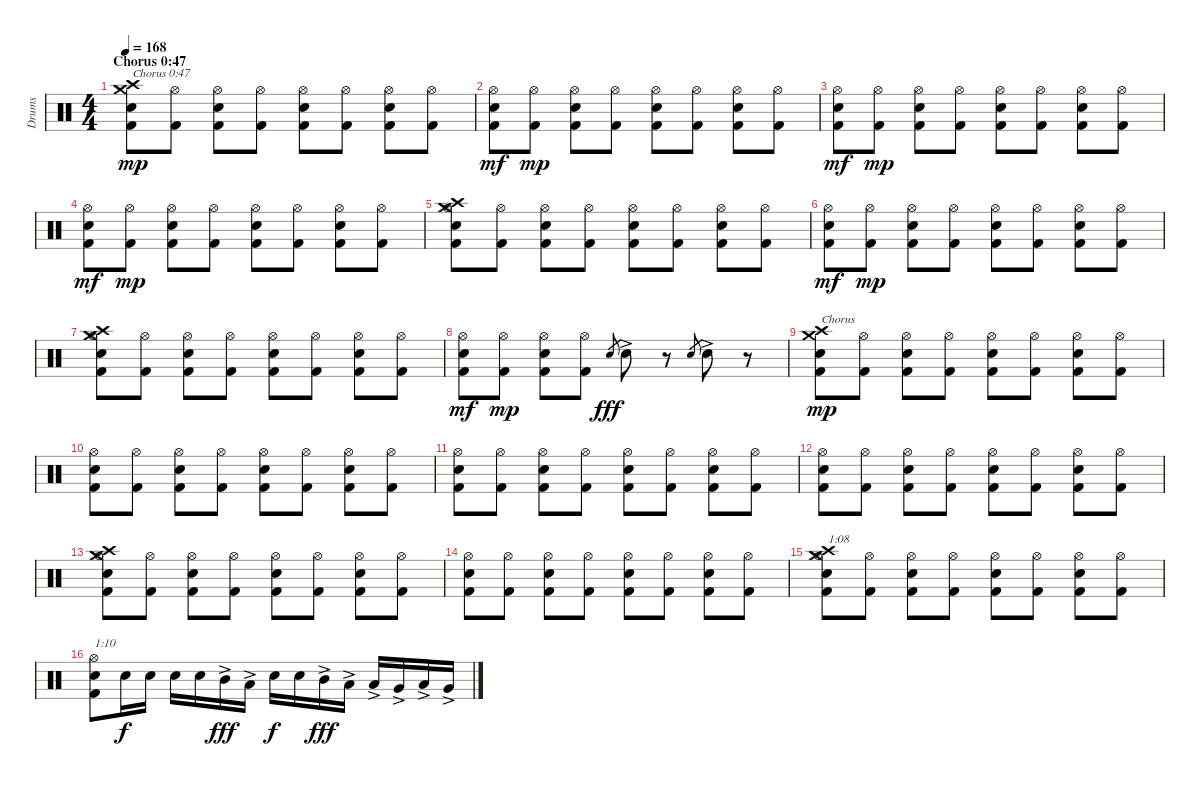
\track ("Drums" "Drums") {instrument percussion}
\staff {score}
\articulation defaults
\ts (4 4)
\section ("" "Chorus 0:47")
\tempo 168
\clef neutral
\ks c
("Kick (hit) 2" "Electric Snare (hit)" "Crash medium (hit)" "Crash high (hit)").8{txt "Chorus 0:47" dy mp} ("Kick (hit) 2" "Hi-Hat (open)").8 ("Kick (hit) 2" "Electric Snare (hit)" "Hi-Hat (open)").8 ("Kick (hit) 2" "Hi-Hat (open)").8 ("Kick (hit) 2" "Electric Snare (hit)" "Hi-Hat (open)").8 ("Kick (hit) 2" "Hi-Hat (open)").8 ("Kick (hit) 2" "Electric Snare (hit)" "Hi-Hat (open)").8 ("Kick (hit) 2" "Hi-Hat (open)").8 |
("Kick (hit) 2" "Electric Snare (hit)" "Hi-Hat (open)").8{dy mf} ("Kick (hit) 2" "Hi-Hat (open)").8{dy mp} ("Kick (hit) 2" "Electric Snare (hit)" "Hi-Hat (open)").8 ("Kick (hit) 2" "Hi-Hat (open)").8 ("Kick (hit) 2" "Electric Snare (hit)" "Hi-Hat (open)").8 ("Kick (hit) 2" "Hi-Hat (open)").8 ("Kick (hit) 2" "Electric Snare (hit)" "Hi-Hat (open)").8 ("Kick (hit) 2" "Hi-Hat (open)").8 |
("Kick (hit) 2" "Electric Snare (hit)" "Hi-Hat (open)").8{dy mf} ("Kick (hit) 2" "Hi-Hat (open)").8{dy mp} ("Kick (hit) 2" "Electric Snare (hit)" "Hi-Hat (open)").8 ("Kick (hit) 2" "Hi-Hat (open)").8 ("Kick (hit) 2" "Electric Snare (hit)" "Hi-Hat (open)").8 ("Kick (hit) 2" "Hi-Hat (open)").8 ("Kick (hit) 2" "Electric Snare (hit)" "Hi-Hat (open)").8 ("Kick (hit) 2" "Hi-Hat (open)").8 |
("Kick (hit) 2" "Electric Snare (hit)" "Hi-Hat (open)").8{dy mf} ("Kick (hit) 2" "Hi-Hat (open)").8{dy mp} ("Kick (hit) 2" "Electric Snare (hit)" "Hi-Hat (open)").8 ("Kick (hit) 2" "Hi-Hat (open)").8 ("Kick (hit) 2" "Electric Snare (hit)" "Hi-Hat (open)").8 ("Kick (hit) 2" "Hi-Hat (open)").8 ("Kick (hit) 2" "Electric Snare (hit)" "Hi-Hat (open)").8 ("Kick (hit) 2" "Hi-Hat (open)").8 |
("Kick (hit) 2" "Electric Snare (hit)" "Hi-Hat (open)" "Crash medium (hit)" "Crash high (hit)").8 ("Kick (hit) 2" "Hi-Hat (open)").8 ("Kick (hit) 2" "Electric Snare (hit)" "Hi-Hat (open)").8 ("Kick (hit) 2" "Hi-Hat (open)").8 ("Kick (hit) 2" "Electric Snare (hit)" "Hi-Hat (open)").8 ("Kick (hit) 2" "Hi-Hat (open)").8 ("Kick (hit) 2" "Electric Snare (hit)" "Hi-Hat (open)").8 ("Kick (hit) 2" "Hi-Hat (open)").8 |
("Kick (hit) 2" "Electric Snare (hit)" "Hi-Hat (open)").8{dy mf} ("Kick (hit) 2" "Hi-Hat (open)").8{dy mp} ("Kick (hit) 2" "Electric Snare (hit)" "Hi-Hat (open)").8 ("Kick (hit) 2" "Hi-Hat (open)").8 ("Kick (hit) 2" "Electric Snare (hit)" "Hi-Hat (open)").8 ("Kick (hit) 2" "Hi-Hat (open)").8 ("Kick (hit) 2" "Electric Snare (hit)" "Hi-Hat (open)").8 ("Kick (hit) 2" "Hi-Hat (open)").8 |
("Kick (hit) 2" "Electric Snare (hit)" "Hi-Hat (open)" "Crash medium (hit)" "Crash high (hit)").8 ("Kick (hit) 2" "Hi-Hat (open)").8 ("Kick (hit) 2" "Electric Snare (hit)" "Hi-Hat (open)").8 ("Kick (hit) 2" "Hi-Hat (open)").8 ("Kick (hit) 2" "Electric Snare (hit)" "Hi-Hat (open)").8 ("Kick (hit) 2" "Hi-Hat (open)").8 ("Kick (hit) 2" "Electric Snare (hit)" "Hi-Hat (open)").8 ("Kick (hit) 2" "Hi-Hat (open)").8 |
("Kick (hit) 2" "Electric Snare (hit)" "Hi-Hat (open)").8{dy mf} ("Kick (hit) 2" "Hi-Hat (open)").8{dy mp} ("Kick (hit) 2" "Electric Snare (hit)" "Hi-Hat (open)").8 ("Kick (hit) 2" "Hi-Hat (open)").8 "Electric Snare (hit)".8{gr dy fff} "Electric Snare (hit)"{ac}.8 r.8 "Electric Snare (hit)".8{gr} "Electric Snare (hit)"{ac}.8 r.8 |
("Kick (hit) 2" "Electric Snare (hit)" "Crash medium (hit)" "Crash high (hit)").8{txt "Chorus" dy mp} ("Kick (hit) 2" "Hi-Hat (open)").8 ("Kick (hit) 2" "Electric Snare (hit)" "Hi-Hat (open)").8 ("Kick (hit) 2" "Hi-Hat (open)").8 ("Kick (hit) 2" "Electric Snare (hit)" "Hi-Hat (open)").8 ("Kick (hit) 2" "Hi-Hat (open)").8 ("Kick (hit) 2" "Electric Snare (hit)" "Hi-Hat (open)").8 ("Kick (hit) 2" "Hi-Hat (open)").8 |
("Kick (hit) 2" "Electric Snare (hit)" "Hi-Hat (open)").8 ("Kick (hit) 2" "Hi-Hat (open)").8 ("Kick (hit) 2" "Electric Snare (hit)" "Hi-Hat (open)").8 ("Kick (hit) 2" "Hi-Hat (open)").8 ("Kick (hit) 2" "Electric Snare (hit)" "Hi-Hat (open)").8 ("Kick (hit) 2" "Hi-Hat (open)").8 ("Kick (hit) 2" "Electric Snare (hit)" "Hi-Hat (open)").8 ("Kick (hit) 2" "Hi-Hat (open)").8 |
("Kick (hit) 2" "Electric Snare (hit)" "Hi-Hat (open)").8 ("Kick (hit) 2" "Hi-Hat (open)").8 ("Kick (hit) 2" "Electric Snare (hit)" "Hi-Hat (open)").8 ("Kick (hit) 2" "Hi-Hat (open)").8 ("Kick (hit) 2" "Electric Snare (hit)" "Hi-Hat (open)").8 ("Kick (hit) 2" "Hi-Hat (open)").8 ("Kick (hit) 2" "Electric Snare (hit)" "Hi-Hat (open)").8 ("Kick (hit) 2" "Hi-Hat (open)").8 |
("Kick (hit) 2" "Electric Snare (hit)" "Hi-Hat (open)").8 ("Kick (hit) 2" "Hi-Hat (open)").8 ("Kick (hit) 2" "Electric Snare (hit)" "Hi-Hat (open)").8 ("Kick (hit) 2" "Hi-Hat (open)").8 ("Kick (hit) 2" "Electric Snare (hit)" "Hi-Hat (open)").8 ("Kick (hit) 2" "Hi-Hat (open)").8 ("Kick (hit) 2" "Electric Snare (hit)" "Hi-Hat (open)").8 ("Kick (hit) 2" "Hi-Hat (open)").8 |
("Kick (hit) 2" "Electric Snare (hit)" "Hi-Hat (open)" "Crash medium (hit)" "Crash high (hit)").8 ("Kick (hit) 2" "Hi-Hat (open)").8 ("Kick (hit) 2" "Electric Snare (hit)" "Hi-Hat (open)").8 ("Kick (hit) 2" "Hi-Hat (open)").8 ("Kick (hit) 2" "Electric Snare (hit)" "Hi-Hat (open)").8 ("Kick (hit) 2" "Hi-Hat (open)").8 ("Kick (hit) 2" "Electric Snare (hit)" "Hi-Hat (open)").8 ("Kick (hit) 2" "Hi-Hat (open)").8 |
("Kick (hit) 2" "Electric Snare (hit)" "Hi-Hat (open)").8 ("Kick (hit) 2" "Hi-Hat (open)").8 ("Kick (hit) 2" "Electric Snare (hit)" "Hi-Hat (open)").8 ("Kick (hit) 2" "Hi-Hat (open)").8 ("Kick (hit) 2" "Electric Snare (hit)" "Hi-Hat (open)").8 ("Kick (hit) 2" "Hi-Hat (open)").8 ("Kick (hit) 2" "Electric Snare (hit)" "Hi-Hat (open)").8 ("Kick (hit) 2" "Hi-Hat (open)").8 |
("Kick (hit) 2" "Electric Snare (hit)" "Hi-Hat (open)" "Crash medium (hit)" "Crash high (hit)").8{txt "1:08"} ("Kick (hit) 2" "Hi-Hat (open)").8 ("Kick (hit) 2" "Electric Snare (hit)" "Hi-Hat (open)").8 ("Kick (hit) 2" "Hi-Hat (open)").8 ("Kick (hit) 2" "Electric Snare (hit)" "Hi-Hat (open)").8 ("Kick (hit) 2" "Hi-Hat (open)").8 ("Kick (hit) 2" "Electric Snare (hit)" "Hi-Hat (open)").8 ("Kick (hit) 2" "Hi-Hat (open)").8 |
("Kick (hit) 2" "Electric Snare (hit)" "Hi-Hat (open)").8{txt "1:10"} "Electric Snare (hit)".16{dy f} "Electric Snare (hit)".16 "Electric Snare (hit)".16 "Electric Snare (hit)".16 "Mid Tom (hit)"{ac}.16{dy fff} "Low Tom (hit)"{ac}.16 "Electric Snare (hit)".16{dy f} "Electric Snare (hit)".16 "Mid Tom (hit)"{ac}.16{dy fff} "Low Tom (hit)"{ac}.16 "Low Tom (hit)"{ac}.16 "Very Low Tom (hit)"{ac}.16 "Low Tom (hit)"{ac}.16 "Very Low Tom (hit)"{ac}.16
